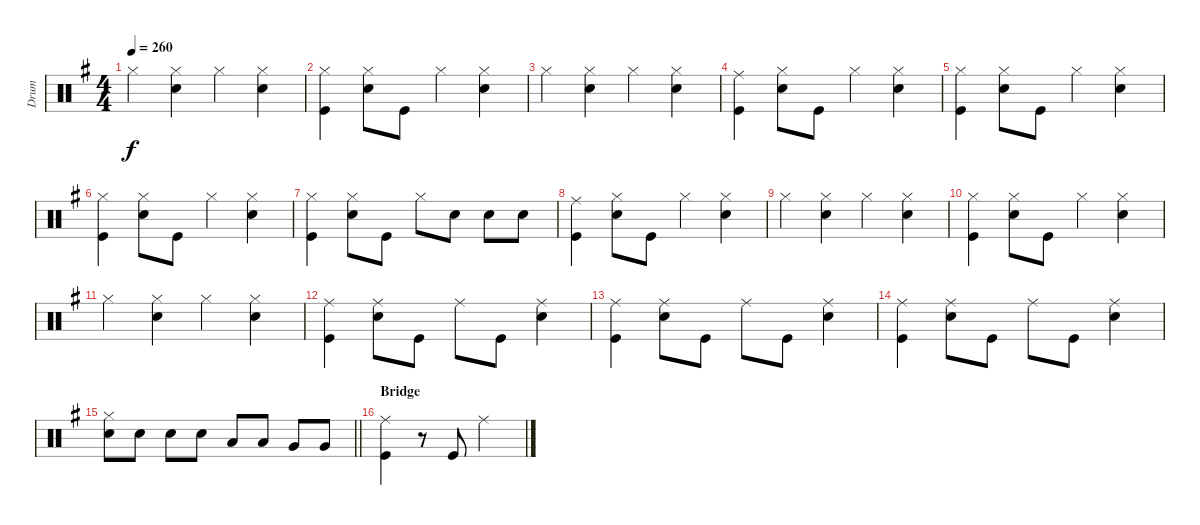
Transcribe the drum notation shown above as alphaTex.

\track ("Drum" "Drum") {instrument percussion}
\staff {score}
\articulation defaults
\ts (4 4)
\tempo 260
\clef neutral
\ks g "Hi-Hat (closed)".4{dy f}
("Hi-Hat (closed)" "Snare (hit) 2").4 "Hi-Hat (closed)".4 ("Hi-Hat (closed)" "Snare (hit) 2").4 |
("Hi-Hat (closed)" "Kick (hit)").4 ("Hi-Hat (closed)" "Snare (hit) 2").8 "Kick (hit)".8 "Hi-Hat (closed)".4 ("Hi-Hat (closed)" "Snare (hit) 2").4 |
"Hi-Hat (closed)".4 ("Hi-Hat (closed)" "Snare (hit) 2").4 "Hi-Hat (closed)".4 ("Hi-Hat (closed)" "Snare (hit) 2").4 |
("Ride (middle)" "Kick (hit)").4 ("Hi-Hat (closed)" "Snare (hit) 2").8 "Kick (hit)".8 "Hi-Hat (closed)".4 ("Hi-Hat (closed)" "Snare (hit) 2").4 |
("Hi-Hat (closed)" "Kick (hit)").4 ("Hi-Hat (closed)" "Snare (hit) 2").8 "Kick (hit)".8 "Hi-Hat (closed)".4 ("Hi-Hat (closed)" "Snare (hit) 2").4 |
("Hi-Hat (closed)" "Kick (hit)").4 ("Hi-Hat (closed)" "Snare (hit) 2").8 "Kick (hit)".8 "Hi-Hat (closed)".4 ("Hi-Hat (closed)" "Snare (hit) 2").4 |
("Hi-Hat (closed)" "Kick (hit)").4 ("Hi-Hat (closed)" "Snare (hit) 2").8 "Kick (hit)".8 "Hi-Hat (closed)".8 "Snare (hit) 2".8 "Snare (hit) 2".8 "Snare (hit) 2".8 |
("Ride (middle)" "Kick (hit)").4 ("Hi-Hat (closed)" "Snare (hit) 2").8 "Kick (hit)".8 "Hi-Hat (closed)".4 ("Hi-Hat (closed)" "Snare (hit) 2").4 |
"Hi-Hat (closed)".4 ("Hi-Hat (closed)" "Snare (hit) 2").4 "Hi-Hat (closed)".4 ("Hi-Hat (closed)" "Snare (hit) 2").4 |
("Hi-Hat (closed)" "Kick (hit)").4 ("Hi-Hat (closed)" "Snare (hit) 2").8 "Kick (hit)".8 "Hi-Hat (closed)".4 ("Hi-Hat (closed)" "Snare (hit) 2").4 |
"Hi-Hat (closed)".4 ("Hi-Hat (closed)" "Snare (hit) 2").4 "Hi-Hat (closed)".4 ("Hi-Hat (closed)" "Snare (hit) 2").4 |
("Ride (middle)" "Kick (hit)").4 ("Ride (middle)" "Snare (hit) 2").8 "Kick (hit)".8 "Ride (middle)".8 "Kick (hit)".8 ("Ride (middle)" "Snare (hit) 2").4 |
("Ride (middle)" "Kick (hit)").4 ("Ride (middle)" "Snare (hit) 2").8 "Kick (hit)".8 "Ride (middle)".8 "Kick (hit)".8 ("Ride (middle)" "Snare (hit) 2").4 |
("Ride (middle)" "Kick (hit)").4 ("Ride (middle)" "Snare (hit) 2").8 "Kick (hit)".8 "Ride (middle)".8 "Kick (hit)".8 ("Ride (middle)" "Snare (hit) 2").4 |
\barLineRight lightlight
("Hi-Hat (closed)" "Snare (hit) 2").8 "Snare (hit) 2".8 "Snare (hit) 2".8 "Snare (hit) 2".8 "Low Tom (hit)".8 "Low Tom (hit)".8 "Very Low Tom (hit)".8 "Very Low Tom (hit)".8 |
\section ("" "Bridge")
("Ride (middle)" "Kick (hit)").4 r.8 "Kick (hit)".8 "Ride (middle)".2
